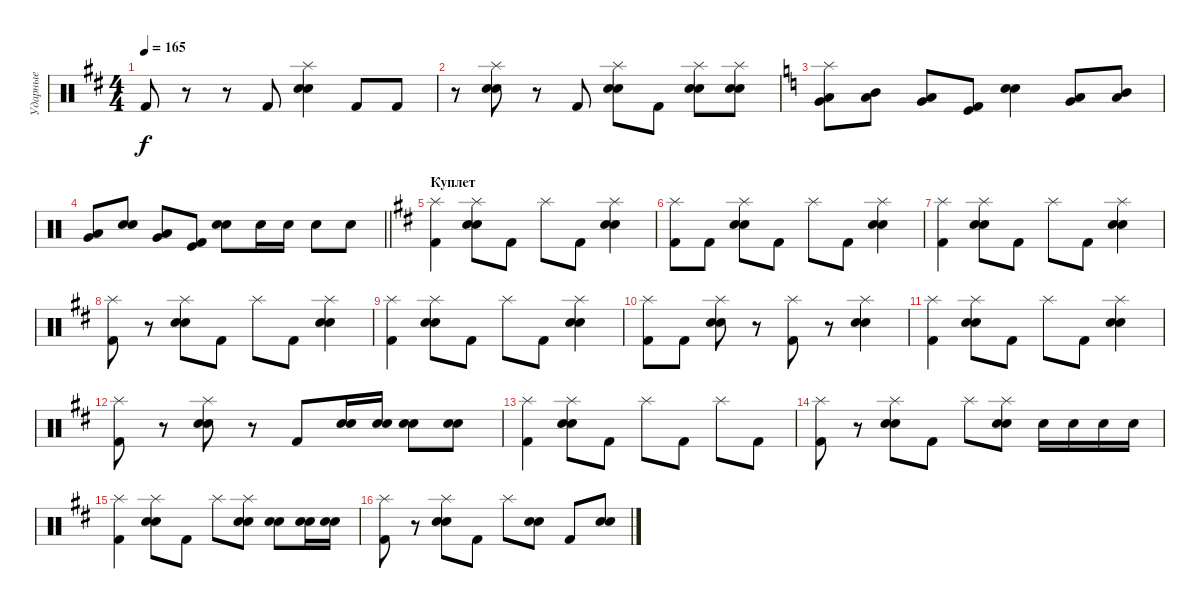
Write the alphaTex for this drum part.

\track ("Ударные" "Ударные") {instrument percussion}
\staff {score}
\articulation defaults
\ts (4 4)
\tempo 165
\clef neutral
\ks bminor "Kick (hit) 2".8{dy f}
r.8 r.8 "Kick (hit) 2".8 ("Splash (hit)" "Electric Snare (hit)" "Snare (hit) 2").4 "Kick (hit) 2".8 "Kick (hit) 2".8 |
r.8 ("Splash (hit)" "Electric Snare (hit)" "Snare (hit) 2").8 r.8 "Kick (hit) 2".8 ("Splash (hit)" "Electric Snare (hit)" "Snare (hit) 2").8 "Kick (hit) 2".8 ("Splash (hit)" "Electric Snare (hit)" "Snare (hit) 2").8 ("Splash (hit)" "Electric Snare (hit)" "Snare (hit) 2").8 |
\ks c
("Splash (hit)" "Very Low Tom (hit)" "Low Floor Tom (hit)").8 ("Mid Tom (hit)" "Low Tom (hit)").8 ("Low Tom (hit)" "Very Low Tom (hit)").8 ("Kick (hit)" "Kick (hit) 2").8 ("Electric Snare (hit)" "Snare (hit) 2").4 ("Low Tom (hit)" "Very Low Tom (hit)").8 ("Mid Tom (hit)" "Low Tom (hit)").8 |
\barLineRight lightlight
("Low Tom (hit)" "Very Low Tom (hit)").8 ("Electric Snare (hit)" "Snare (hit) 2").8 ("Low Tom (hit)" "Very Low Tom (hit)").8 ("Kick (hit)" "Kick (hit) 2").8 ("Electric Snare (hit)" "Snare (hit) 2").8 "Electric Snare (hit)".16 "Electric Snare (hit)".16 "Electric Snare (hit)".8 "Electric Snare (hit)".8 |
\section ("" "Куплет")
\ks bminor
("Splash (hit)" "Kick (hit) 2").4 ("Splash (hit)" "Electric Snare (hit)" "Snare (hit) 2").8 "Kick (hit) 2".8 "Splash (hit)".8 "Kick (hit) 2".8 ("Splash (hit)" "Electric Snare (hit)" "Snare (hit) 2").4 |
("Splash (hit)" "Kick (hit) 2").8 "Kick (hit) 2".8 ("Splash (hit)" "Electric Snare (hit)" "Snare (hit) 2").8 "Kick (hit) 2".8 "Splash (hit)".8 "Kick (hit) 2".8 ("Splash (hit)" "Electric Snare (hit)" "Snare (hit) 2").4 |
("Splash (hit)" "Kick (hit) 2").4 ("Splash (hit)" "Electric Snare (hit)" "Snare (hit) 2").8 "Kick (hit) 2".8 "Splash (hit)".8 "Kick (hit) 2".8 ("Splash (hit)" "Electric Snare (hit)" "Snare (hit) 2").4 |
("Splash (hit)" "Kick (hit) 2").8 r.8 ("Splash (hit)" "Electric Snare (hit)" "Snare (hit) 2").8 "Kick (hit) 2".8 "Splash (hit)".8 "Kick (hit) 2".8 ("Splash (hit)" "Electric Snare (hit)" "Snare (hit) 2").4 |
("Splash (hit)" "Kick (hit) 2").4 ("Splash (hit)" "Electric Snare (hit)" "Snare (hit) 2").8 "Kick (hit) 2".8 "Splash (hit)".8 "Kick (hit) 2".8 ("Splash (hit)" "Electric Snare (hit)" "Snare (hit) 2").4 |
("Splash (hit)" "Kick (hit) 2").8 "Kick (hit) 2".8 ("Splash (hit)" "Electric Snare (hit)" "Snare (hit) 2").8 r.8 ("Splash (hit)" "Kick (hit) 2").8 r.8 ("Splash (hit)" "Electric Snare (hit)" "Snare (hit) 2").4 |
("Splash (hit)" "Kick (hit) 2").4 ("Splash (hit)" "Electric Snare (hit)" "Snare (hit) 2").8 "Kick (hit) 2".8 "Splash (hit)".8 "Kick (hit) 2".8 ("Splash (hit)" "Electric Snare (hit)" "Snare (hit) 2").4 |
("Splash (hit)" "Kick (hit) 2").8 r.8 ("Splash (hit)" "Electric Snare (hit)" "Snare (hit) 2").8 r.8 "Kick (hit) 2".8 ("Electric Snare (hit)" "Snare (hit) 2").16 ("Electric Snare (hit)" "Snare (hit) 2").16 ("Electric Snare (hit)" "Snare (hit) 2").8 ("Electric Snare (hit)" "Snare (hit) 2").8 |
("Splash (hit)" "Kick (hit) 2").4 ("Splash (hit)" "Electric Snare (hit)" "Snare (hit) 2").8 "Kick (hit) 2".8 "Splash (hit)".8 "Kick (hit) 2".8 "Splash (hit)".8 "Kick (hit) 2".8 |
("Splash (hit)" "Kick (hit) 2").8 r.8 ("Splash (hit)" "Electric Snare (hit)" "Snare (hit) 2").8 "Kick (hit) 2".8 "Splash (hit)".8 ("Splash (hit)" "Electric Snare (hit)" "Snare (hit) 2").8 "Electric Snare (hit)".16 "Electric Snare (hit)".16 "Electric Snare (hit)".16 "Electric Snare (hit)".16 |
("Splash (hit)" "Kick (hit) 2").4 ("Splash (hit)" "Electric Snare (hit)" "Snare (hit) 2").8 "Kick (hit) 2".8 "Splash (hit)".8 ("Splash (hit)" "Electric Snare (hit)" "Snare (hit) 2").8 ("Electric Snare (hit)" "Snare (hit) 2").8 ("Electric Snare (hit)" "Snare (hit) 2").16 ("Electric Snare (hit)" "Snare (hit) 2").16 |
("Splash (hit)" "Kick (hit) 2").8 r.8 ("Splash (hit)" "Electric Snare (hit)" "Snare (hit) 2").8 "Kick (hit) 2".8 "Splash (hit)".8 ("Electric Snare (hit)" "Snare (hit) 2").8 "Kick (hit) 2".8 ("Electric Snare (hit)" "Snare (hit) 2").8
